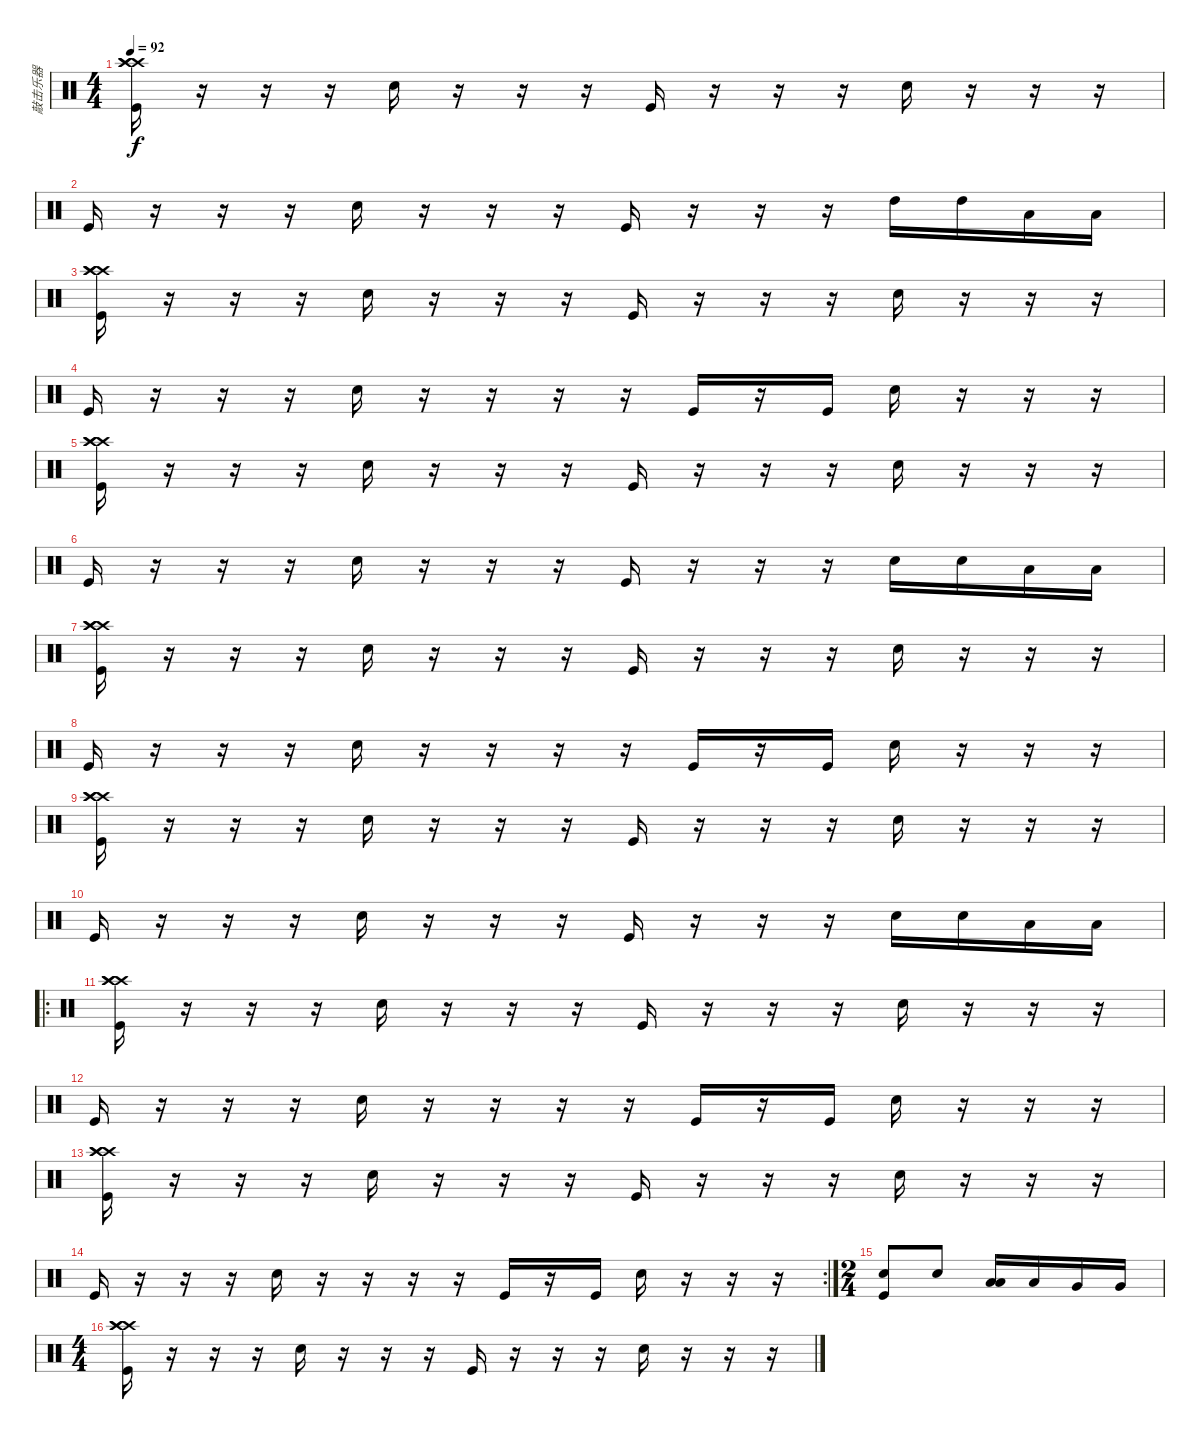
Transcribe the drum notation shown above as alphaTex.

\track ("敲击乐器" "敲击乐器") {instrument percussion}
\staff {score}
\articulation defaults
\ts (4 4)
\tempo 92
\clef neutral
\ks c
("Kick (hit)" "Crash high (hit)" "Crash high (hit)" "Crash high (hit)").16{dy f} r.16 r.16 r.16 "Electric Snare (hit)".16 r.16 r.16 r.16 "Kick (hit)".16 r.16 r.16 r.16 "Electric Snare (hit)".16 r.16 r.16 r.16 |
"Kick (hit)".16 r.16 r.16 r.16 "Electric Snare (hit)".16 r.16 r.16 r.16 "Kick (hit)".16 r.16 r.16 r.16 "High Tom (hit)".16 "High Tom (hit)".16 "Low Tom (hit)".16 "Low Tom (hit)".16 |
("Kick (hit)" "Crash high (hit)" "Crash high (hit)" "Crash high (hit)").16 r.16 r.16 r.16 "Electric Snare (hit)".16 r.16 r.16 r.16 "Kick (hit)".16 r.16 r.16 r.16 "Electric Snare (hit)".16 r.16 r.16 r.16 |
"Kick (hit)".16 r.16 r.16 r.16 "Electric Snare (hit)".16 r.16 r.16 r.16 r.16 "Kick (hit)".16 r.16 "Kick (hit)".16 "Electric Snare (hit)".16 r.16 r.16 r.16 |
("Kick (hit)" "Crash high (hit)" "Crash high (hit)" "Crash high (hit)").16 r.16 r.16 r.16 "Electric Snare (hit)".16 r.16 r.16 r.16 "Kick (hit)".16 r.16 r.16 r.16 "Electric Snare (hit)".16 r.16 r.16 r.16 |
"Kick (hit)".16 r.16 r.16 r.16 "Electric Snare (hit)".16 r.16 r.16 r.16 "Kick (hit)".16 r.16 r.16 r.16 "Electric Snare (hit)".16 "Electric Snare (hit)".16 "Low Tom (hit)".16 "Low Tom (hit)".16 |
("Kick (hit)" "Crash high (hit)" "Crash high (hit)" "Crash high (hit)").16 r.16 r.16 r.16 "Electric Snare (hit)".16 r.16 r.16 r.16 "Kick (hit)".16 r.16 r.16 r.16 "Electric Snare (hit)".16 r.16 r.16 r.16 |
"Kick (hit)".16 r.16 r.16 r.16 "Electric Snare (hit)".16 r.16 r.16 r.16 r.16 "Kick (hit)".16 r.16 "Kick (hit)".16 "Electric Snare (hit)".16 r.16 r.16 r.16 |
("Kick (hit)" "Crash high (hit)" "Crash high (hit)" "Crash high (hit)").16 r.16 r.16 r.16 "Electric Snare (hit)".16 r.16 r.16 r.16 "Kick (hit)".16 r.16 r.16 r.16 "Electric Snare (hit)".16 r.16 r.16 r.16 |
"Kick (hit)".16 r.16 r.16 r.16 "Electric Snare (hit)".16 r.16 r.16 r.16 "Kick (hit)".16 r.16 r.16 r.16 "Electric Snare (hit)".16 "Electric Snare (hit)".16 "Low Tom (hit)".16 "Low Tom (hit)".16 |
\ro
("Kick (hit)" "Crash high (hit)" "Crash high (hit)" "Crash high (hit)").16 r.16 r.16 r.16 "Electric Snare (hit)".16 r.16 r.16 r.16 "Kick (hit)".16 r.16 r.16 r.16 "Electric Snare (hit)".16 r.16 r.16 r.16 |
"Kick (hit)".16 r.16 r.16 r.16 "Electric Snare (hit)".16 r.16 r.16 r.16 r.16 "Kick (hit)".16 r.16 "Kick (hit)".16 "Electric Snare (hit)".16 r.16 r.16 r.16 |
("Kick (hit)" "Crash high (hit)" "Crash high (hit)" "Crash high (hit)").16 r.16 r.16 r.16 "Electric Snare (hit)".16 r.16 r.16 r.16 "Kick (hit)".16 r.16 r.16 r.16 "Electric Snare (hit)".16 r.16 r.16 r.16 |
\rc 2 "Kick (hit)".16
r.16 r.16 r.16 "Electric Snare (hit)".16 r.16 r.16 r.16 r.16 "Kick (hit)".16 r.16 "Kick (hit)".16 "Electric Snare (hit)".16 r.16 r.16 r.16 |
\ts (2 4)
("Electric Snare (hit)" "Kick (hit)").8 "Electric Snare (hit)".8 ("Low Tom (hit)" "Low Tom (hit)").16 "Low Tom (hit)".16 "Very Low Tom (hit)".16 "Very Low Tom (hit)".16 |
\ts (4 4)
("Kick (hit)" "Crash high (hit)" "Crash high (hit)" "Crash high (hit)").16 r.16 r.16 r.16 "Electric Snare (hit)".16 r.16 r.16 r.16 "Kick (hit)".16 r.16 r.16 r.16 "Electric Snare (hit)".16 r.16 r.16 r.16
